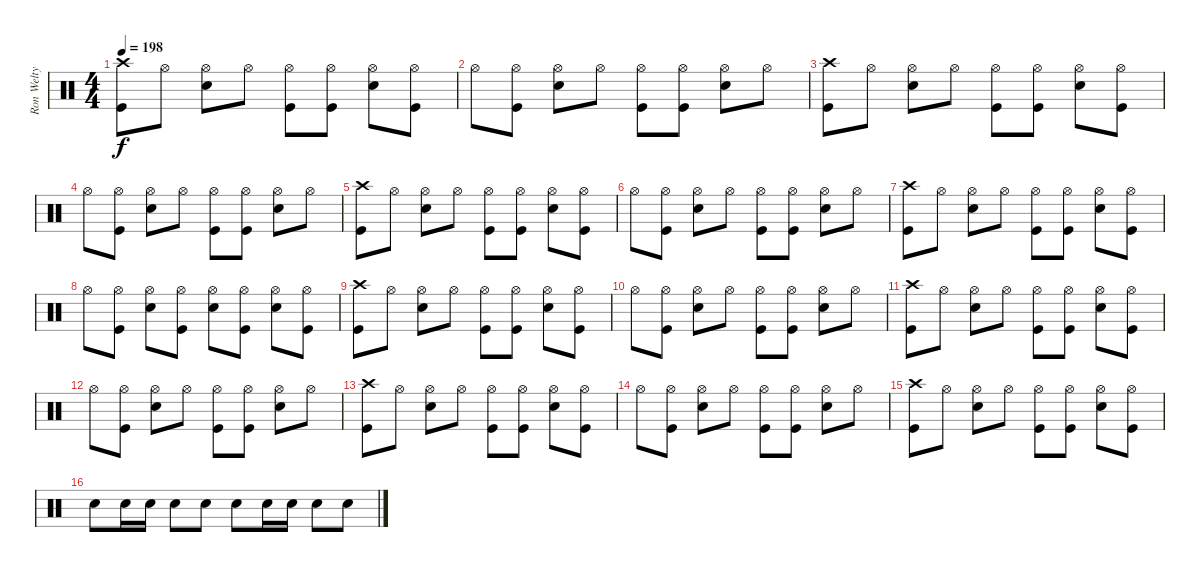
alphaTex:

\track ("Ron Welty" "Ron Welty") {instrument percussion}
\staff {score}
\articulation defaults
\ts (4 4)
\tempo 198
\clef neutral
\ks c
("Kick (hit)" "Crash high (hit)").8{dy f} "Hi-Hat (open)".8 ("Hi-Hat (open)" "Snare (hit) 2").8 "Hi-Hat (open)".8 ("Hi-Hat (open)" "Kick (hit)").8 ("Hi-Hat (open)" "Kick (hit)").8 ("Hi-Hat (open)" "Snare (hit) 2").8 ("Hi-Hat (open)" "Kick (hit)").8 |
"Hi-Hat (open)".8 ("Kick (hit)" "Hi-Hat (open)").8 ("Hi-Hat (open)" "Snare (hit) 2").8 "Hi-Hat (open)".8 ("Hi-Hat (open)" "Kick (hit)").8 ("Kick (hit)" "Hi-Hat (open)").8 ("Hi-Hat (open)" "Snare (hit) 2").8 "Hi-Hat (open)".8 |
("Kick (hit)" "Crash high (hit)").8 "Hi-Hat (open)".8 ("Hi-Hat (open)" "Snare (hit) 2").8 "Hi-Hat (open)".8 ("Hi-Hat (open)" "Kick (hit)").8 ("Hi-Hat (open)" "Kick (hit)").8 ("Hi-Hat (open)" "Snare (hit) 2").8 ("Hi-Hat (open)" "Kick (hit)").8 |
"Hi-Hat (open)".8 ("Kick (hit)" "Hi-Hat (open)").8 ("Hi-Hat (open)" "Snare (hit) 2").8 "Hi-Hat (open)".8 ("Hi-Hat (open)" "Kick (hit)").8 ("Kick (hit)" "Hi-Hat (open)").8 ("Hi-Hat (open)" "Snare (hit) 2").8 "Hi-Hat (open)".8 |
("Kick (hit)" "Crash high (hit)").8 "Hi-Hat (open)".8 ("Hi-Hat (open)" "Snare (hit) 2").8 "Hi-Hat (open)".8 ("Hi-Hat (open)" "Kick (hit)").8 ("Hi-Hat (open)" "Kick (hit)").8 ("Hi-Hat (open)" "Snare (hit) 2").8 ("Hi-Hat (open)" "Kick (hit)").8 |
"Hi-Hat (open)".8 ("Kick (hit)" "Hi-Hat (open)").8 ("Hi-Hat (open)" "Snare (hit) 2").8 "Hi-Hat (open)".8 ("Hi-Hat (open)" "Kick (hit)").8 ("Kick (hit)" "Hi-Hat (open)").8 ("Hi-Hat (open)" "Snare (hit) 2").8 "Hi-Hat (open)".8 |
("Kick (hit)" "Crash high (hit)").8 "Hi-Hat (open)".8 ("Hi-Hat (open)" "Snare (hit) 2").8 "Hi-Hat (open)".8 ("Hi-Hat (open)" "Kick (hit)").8 ("Hi-Hat (open)" "Kick (hit)").8 ("Hi-Hat (open)" "Snare (hit) 2").8 ("Hi-Hat (open)" "Kick (hit)").8 |
"Hi-Hat (open)".8 ("Hi-Hat (open)" "Kick (hit)").8 ("Hi-Hat (open)" "Snare (hit) 2").8 ("Hi-Hat (open)" "Kick (hit)").8 ("Hi-Hat (open)" "Snare (hit) 2").8 ("Hi-Hat (open)" "Kick (hit)").8 ("Hi-Hat (open)" "Snare (hit) 2").8 ("Hi-Hat (open)" "Kick (hit)").8 |
("Kick (hit)" "Crash high (hit)").8 "Hi-Hat (open)".8 ("Hi-Hat (open)" "Snare (hit) 2").8 "Hi-Hat (open)".8 ("Hi-Hat (open)" "Kick (hit)").8 ("Hi-Hat (open)" "Kick (hit)").8 ("Hi-Hat (open)" "Snare (hit) 2").8 ("Hi-Hat (open)" "Kick (hit)").8 |
"Hi-Hat (open)".8 ("Kick (hit)" "Hi-Hat (open)").8 ("Hi-Hat (open)" "Snare (hit) 2").8 "Hi-Hat (open)".8 ("Hi-Hat (open)" "Kick (hit)").8 ("Kick (hit)" "Hi-Hat (open)").8 ("Hi-Hat (open)" "Snare (hit) 2").8 "Hi-Hat (open)".8 |
("Kick (hit)" "Crash high (hit)").8 "Hi-Hat (open)".8 ("Hi-Hat (open)" "Snare (hit) 2").8 "Hi-Hat (open)".8 ("Hi-Hat (open)" "Kick (hit)").8 ("Hi-Hat (open)" "Kick (hit)").8 ("Hi-Hat (open)" "Snare (hit) 2").8 ("Hi-Hat (open)" "Kick (hit)").8 |
"Hi-Hat (open)".8 ("Kick (hit)" "Hi-Hat (open)").8 ("Hi-Hat (open)" "Snare (hit) 2").8 "Hi-Hat (open)".8 ("Hi-Hat (open)" "Kick (hit)").8 ("Kick (hit)" "Hi-Hat (open)").8 ("Hi-Hat (open)" "Snare (hit) 2").8 "Hi-Hat (open)".8 |
("Kick (hit)" "Crash high (hit)").8 "Hi-Hat (open)".8 ("Hi-Hat (open)" "Snare (hit) 2").8 "Hi-Hat (open)".8 ("Hi-Hat (open)" "Kick (hit)").8 ("Hi-Hat (open)" "Kick (hit)").8 ("Hi-Hat (open)" "Snare (hit) 2").8 ("Hi-Hat (open)" "Kick (hit)").8 |
"Hi-Hat (open)".8 ("Kick (hit)" "Hi-Hat (open)").8 ("Hi-Hat (open)" "Snare (hit) 2").8 "Hi-Hat (open)".8 ("Hi-Hat (open)" "Kick (hit)").8 ("Kick (hit)" "Hi-Hat (open)").8 ("Hi-Hat (open)" "Snare (hit) 2").8 "Hi-Hat (open)".8 |
("Kick (hit)" "Crash high (hit)").8 "Hi-Hat (open)".8 ("Hi-Hat (open)" "Snare (hit) 2").8 "Hi-Hat (open)".8 ("Hi-Hat (open)" "Kick (hit)").8 ("Hi-Hat (open)" "Kick (hit)").8 ("Hi-Hat (open)" "Snare (hit) 2").8 ("Hi-Hat (open)" "Kick (hit)").8 |
"Snare (hit) 2".8 "Snare (hit) 2".16 "Snare (hit) 2".16 "Snare (hit) 2".8 "Snare (hit) 2".8 "Snare (hit) 2".8 "Snare (hit) 2".16 "Snare (hit) 2".16 "Snare (hit) 2".8 "Snare (hit) 2".8
